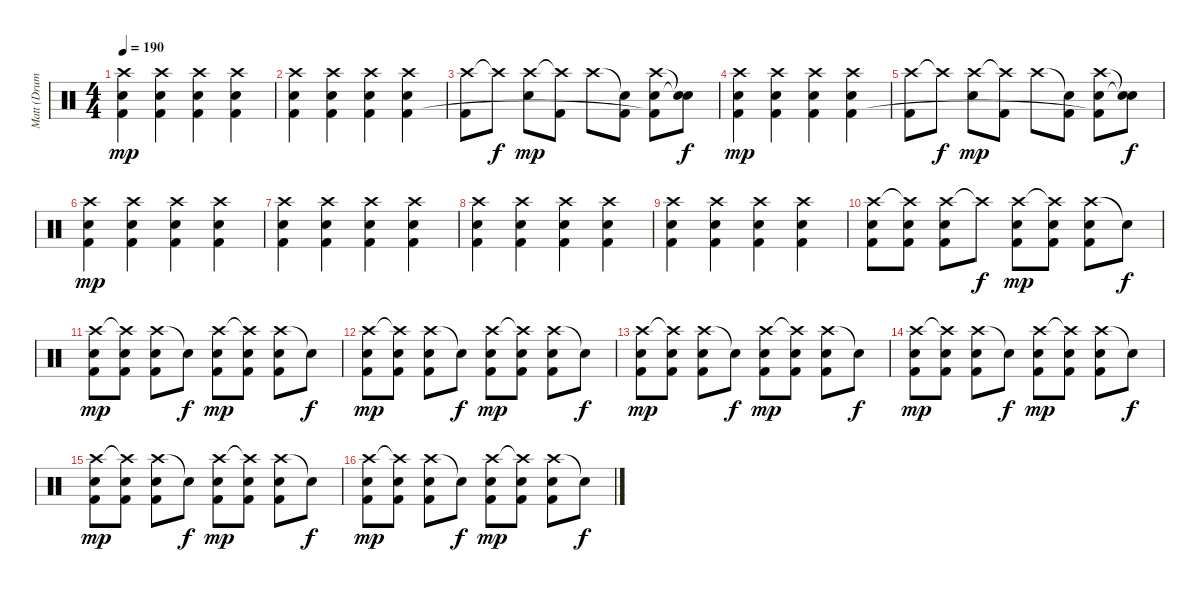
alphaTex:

\track ("Matt (Drums)" "Matt (Drum") {instrument percussion}
\staff {score}
\articulation defaults
\ts (4 4)
\tempo 190
\clef neutral
\ks c
("Crash high (hit)" "Snare (hit) 2" "Kick (hit) 2").4{dy mp} ("Crash high (hit)" "Snare (hit) 2" "Kick (hit) 2").4 ("Crash high (hit)" "Snare (hit) 2" "Kick (hit) 2").4 ("Crash high (hit)" "Snare (hit) 2" "Kick (hit) 2").4 |
("Crash high (hit)" "Snare (hit) 2" "Kick (hit) 2").4 ("Crash high (hit)" "Snare (hit) 2" "Kick (hit) 2").4 ("Crash high (hit)" "Snare (hit) 2" "Kick (hit) 2").4 ("Crash high (hit)" "Snare (hit) 2" "Kick (hit) 2").4 |
("Crash high (hit)" "Kick (hit) 2").8 "Crash high (hit)"{t}.8{dy f} ("Crash high (hit)" "Snare (hit) 2").8{dy mp} ("Crash high (hit)"{t} "Kick (hit) 2").8 "Crash high (hit)".8 ("Snare (hit)"{t} "Kick (hit) 2").8 ("Crash high (hit)" "Snare (hit) 2" "Kick (hit) 2"{t}).8 ("Snare (hit)"{t} "Snare (hit) 2"{t}).8{dy f} |
("Crash high (hit)" "Snare (hit) 2" "Kick (hit) 2").4{dy mp} ("Crash high (hit)" "Snare (hit) 2" "Kick (hit) 2").4 ("Crash high (hit)" "Snare (hit) 2" "Kick (hit) 2").4 ("Crash high (hit)" "Snare (hit) 2" "Kick (hit) 2").4 |
("Crash high (hit)" "Kick (hit) 2").8 "Crash high (hit)"{t}.8{dy f} ("Crash high (hit)" "Snare (hit) 2").8{dy mp} ("Crash high (hit)"{t} "Kick (hit) 2").8 "Crash high (hit)".8 ("Snare (hit)"{t} "Kick (hit) 2").8 ("Crash high (hit)" "Snare (hit) 2" "Kick (hit) 2"{t}).8 ("Snare (hit)"{t} "Snare (hit) 2"{t}).8{dy f} |
("Crash high (hit)" "Snare (hit) 2" "Kick (hit) 2").4{dy mp} ("Crash high (hit)" "Snare (hit) 2" "Kick (hit) 2").4 ("Crash high (hit)" "Snare (hit) 2" "Kick (hit) 2").4 ("Crash high (hit)" "Snare (hit) 2" "Kick (hit) 2").4 |
("Crash high (hit)" "Snare (hit) 2" "Kick (hit) 2").4 ("Crash high (hit)" "Snare (hit) 2" "Kick (hit) 2").4 ("Crash high (hit)" "Snare (hit) 2" "Kick (hit) 2").4 ("Crash high (hit)" "Snare (hit) 2" "Kick (hit) 2").4 |
("Crash high (hit)" "Snare (hit) 2" "Kick (hit) 2").4 ("Crash high (hit)" "Snare (hit) 2" "Kick (hit) 2").4 ("Crash high (hit)" "Snare (hit) 2" "Kick (hit) 2").4 ("Crash high (hit)" "Snare (hit) 2" "Kick (hit) 2").4 |
("Crash high (hit)" "Snare (hit) 2" "Kick (hit) 2").4 ("Crash high (hit)" "Snare (hit) 2" "Kick (hit) 2").4 ("Crash high (hit)" "Snare (hit) 2" "Kick (hit) 2").4 ("Crash high (hit)" "Snare (hit) 2" "Kick (hit) 2").4 |
("Crash high (hit)" "Snare (hit) 2" "Kick (hit) 2").8 ("Crash high (hit)"{t} "Snare (hit) 2" "Kick (hit) 2").8 ("Crash high (hit)" "Snare (hit) 2" "Kick (hit) 2").8 "Crash high (hit)"{t}.8{dy f} ("Crash high (hit)" "Snare (hit) 2" "Kick (hit) 2").8{dy mp} ("Crash high (hit)"{t} "Snare (hit) 2" "Kick (hit) 2").8 ("Crash high (hit)" "Snare (hit) 2" "Kick (hit) 2").8 "Snare (hit)"{t}.8{dy f} |
("Crash high (hit)" "Snare (hit) 2" "Kick (hit) 2").8{dy mp} ("Crash high (hit)"{t} "Snare (hit) 2" "Kick (hit) 2").8 ("Crash high (hit)" "Snare (hit) 2" "Kick (hit) 2").8 "Snare (hit)"{t}.8{dy f} ("Crash high (hit)" "Snare (hit) 2" "Kick (hit) 2").8{dy mp} ("Crash high (hit)"{t} "Snare (hit) 2" "Kick (hit) 2").8 ("Crash high (hit)" "Snare (hit) 2" "Kick (hit) 2").8 "Snare (hit)"{t}.8{dy f} |
("Crash high (hit)" "Snare (hit) 2" "Kick (hit) 2").8{dy mp} ("Crash high (hit)"{t} "Snare (hit) 2" "Kick (hit) 2").8 ("Crash high (hit)" "Snare (hit) 2" "Kick (hit) 2").8 "Snare (hit)"{t}.8{dy f} ("Crash high (hit)" "Snare (hit) 2" "Kick (hit) 2").8{dy mp} ("Crash high (hit)"{t} "Snare (hit) 2" "Kick (hit) 2").8 ("Crash high (hit)" "Snare (hit) 2" "Kick (hit) 2").8 "Snare (hit)"{t}.8{dy f} |
("Crash high (hit)" "Snare (hit) 2" "Kick (hit) 2").8{dy mp} ("Crash high (hit)"{t} "Snare (hit) 2" "Kick (hit) 2").8 ("Crash high (hit)" "Snare (hit) 2" "Kick (hit) 2").8 "Snare (hit)"{t}.8{dy f} ("Crash high (hit)" "Snare (hit) 2" "Kick (hit) 2").8{dy mp} ("Crash high (hit)"{t} "Snare (hit) 2" "Kick (hit) 2").8 ("Crash high (hit)" "Snare (hit) 2" "Kick (hit) 2").8 "Snare (hit)"{t}.8{dy f} |
("Crash high (hit)" "Snare (hit) 2" "Kick (hit) 2").8{dy mp} ("Crash high (hit)"{t} "Snare (hit) 2" "Kick (hit) 2").8 ("Crash high (hit)" "Snare (hit) 2" "Kick (hit) 2").8 "Snare (hit)"{t}.8{dy f} ("Crash high (hit)" "Snare (hit) 2" "Kick (hit) 2").8{dy mp} ("Crash high (hit)"{t} "Snare (hit) 2" "Kick (hit) 2").8 ("Crash high (hit)" "Snare (hit) 2" "Kick (hit) 2").8 "Snare (hit)"{t}.8{dy f} |
("Crash high (hit)" "Snare (hit) 2" "Kick (hit) 2").8{dy mp} ("Crash high (hit)"{t} "Snare (hit) 2" "Kick (hit) 2").8 ("Crash high (hit)" "Snare (hit) 2" "Kick (hit) 2").8 "Snare (hit)"{t}.8{dy f} ("Crash high (hit)" "Snare (hit) 2" "Kick (hit) 2").8{dy mp} ("Crash high (hit)"{t} "Snare (hit) 2" "Kick (hit) 2").8 ("Crash high (hit)" "Snare (hit) 2" "Kick (hit) 2").8 "Snare (hit)"{t}.8{dy f} |
("Crash high (hit)" "Snare (hit) 2" "Kick (hit) 2").8{dy mp} ("Crash high (hit)"{t} "Snare (hit) 2" "Kick (hit) 2").8 ("Crash high (hit)" "Snare (hit) 2" "Kick (hit) 2").8 "Snare (hit)"{t}.8{dy f} ("Crash high (hit)" "Snare (hit) 2" "Kick (hit) 2").8{dy mp} ("Crash high (hit)"{t} "Snare (hit) 2" "Kick (hit) 2").8 ("Crash high (hit)" "Snare (hit) 2" "Kick (hit) 2").8 "Snare (hit)"{t}.8{dy f}
